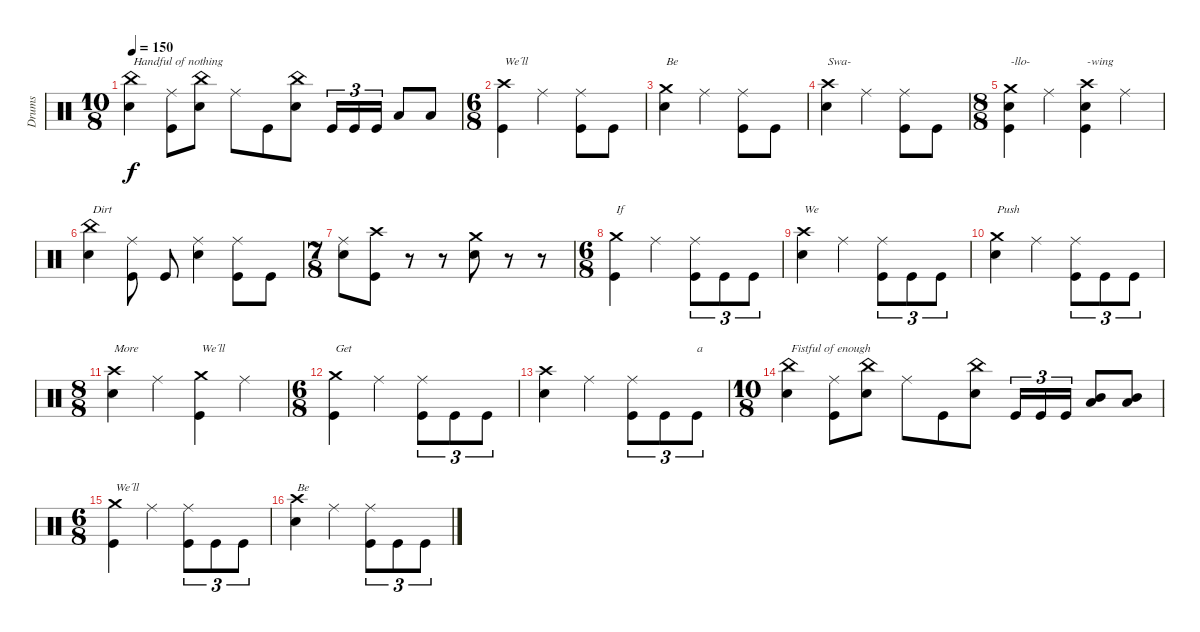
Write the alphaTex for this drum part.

\track ("Drums" "Drums") {instrument percussion}
\staff {score}
\articulation defaults
\ts (10 8)
\tempo 150
\clef neutral
\ks c
("China (hit)" "Snare (hit) 2").4{txt "Handful of nothing" dy f} ("Ride (middle)" "Kick (hit)").8 ("China (hit)" "Snare (hit) 2").8 "Ride (middle)".8 "Kick (hit)".8 ("China (hit)" "Snare (hit) 2").8 "Kick (hit)".16{tu (3 2)} "Kick (hit)".16{tu (3 2)} "Kick (hit)".16{tu (3 2)} "Low Floor Tom (hit)".8 "Low Floor Tom (hit)".8 |
\ts (6 8)
("Crash high (hit)" "Kick (hit)").4{txt "We´ll"} "Ride (middle)".4 ("Ride (middle)" "Kick (hit)").8 "Kick (hit)".8 |
("Crash medium (hit)" "Snare (hit) 2").4{txt "Be"} "Ride (middle)".4 ("Ride (middle)" "Kick (hit)").8 "Kick (hit)".8 |
("Crash high (hit)" "Snare (hit) 2").4{txt "Swa-"} "Ride (middle)".4 ("Ride (middle)" "Kick (hit)").8 "Kick (hit)".8 |
\ts (8 8)
("Crash medium (hit)" "Snare (hit) 2" "Kick (hit)").4{txt "-llo-"} "Ride (middle)".4 ("Crash high (hit)" "Snare (hit) 2" "Kick (hit)").4{txt "-wing"} "Ride (middle)".4 |
("China (hit)" "Snare (hit) 2").4{txt "Dirt"} ("Ride (middle)" "Kick (hit)").8 "Kick (hit)".8 ("Ride (middle)" "Snare (hit) 2").4 ("Ride (middle)" "Kick (hit)").8 "Kick (hit)".8 |
\ts (7 8)
("Ride (middle)" "Snare (hit) 2").8 ("Crash high (hit)" "Kick (hit)").8 r.8 r.8 ("Crash medium (hit)" "Snare (hit) 2").8 r.8 r.8 |
\ts (6 8)
("Crash medium (hit)" "Kick (hit)").4{txt "If"} "Ride (middle)".4 ("Ride (middle)" "Kick (hit)").8{tu (3 2)} "Kick (hit)".8{tu (3 2)} "Kick (hit)".8{tu (3 2)} |
("Crash high (hit)" "Snare (hit) 2").4{txt "We"} "Ride (middle)".4 ("Ride (middle)" "Kick (hit)").8{tu (3 2)} "Kick (hit)".8{tu (3 2)} "Kick (hit)".8{tu (3 2)} |
("Crash medium (hit)" "Snare (hit) 2").4{txt "Push"} "Ride (middle)".4 ("Ride (middle)" "Kick (hit)").8{tu (3 2)} "Kick (hit)".8{tu (3 2)} "Kick (hit)".8{tu (3 2)} |
\ts (8 8)
("Crash high (hit)" "Snare (hit) 2").4{txt "More"} "Ride (middle)".4 ("Crash medium (hit)" "Kick (hit)").4{txt "We´ll"} "Ride (middle)".4 |
\ts (6 8)
("Crash medium (hit)" "Kick (hit)").4{txt "Get"} "Ride (middle)".4 ("Ride (middle)" "Kick (hit)").8{tu (3 2)} "Kick (hit)".8{tu (3 2)} "Kick (hit)".8{tu (3 2)} |
("Crash high (hit)" "Snare (hit) 2").4 "Ride (middle)".4 ("Ride (middle)" "Kick (hit)").8{tu (3 2)} "Kick (hit)".8{tu (3 2)} "Kick (hit)".8{tu (3 2) txt "a"} |
\ts (10 8)
("China (hit)" "Snare (hit) 2").4{txt "Fistful of enough"} ("Ride (middle)" "Kick (hit)").8 ("China (hit)" "Snare (hit) 2").8 "Ride (middle)".8 "Kick (hit)".8 ("China (hit)" "Snare (hit) 2").8 "Kick (hit)".16{tu (3 2)} "Kick (hit)".16{tu (3 2)} "Kick (hit)".16{tu (3 2)} ("Mid Tom (hit)" "Low Floor Tom (hit)").8 ("Mid Tom (hit)" "Low Floor Tom (hit)").8 |
\ts (6 8)
("Crash medium (hit)" "Kick (hit)").4{txt "We´ll"} "Ride (middle)".4 ("Ride (middle)" "Kick (hit)").8{tu (3 2)} "Kick (hit)".8{tu (3 2)} "Kick (hit)".8{tu (3 2)} |
("Crash high (hit)" "Snare (hit) 2").4{txt "Be"} "Ride (middle)".4 ("Ride (middle)" "Kick (hit)").8{tu (3 2)} "Kick (hit)".8{tu (3 2)} "Kick (hit)".8{tu (3 2)}
